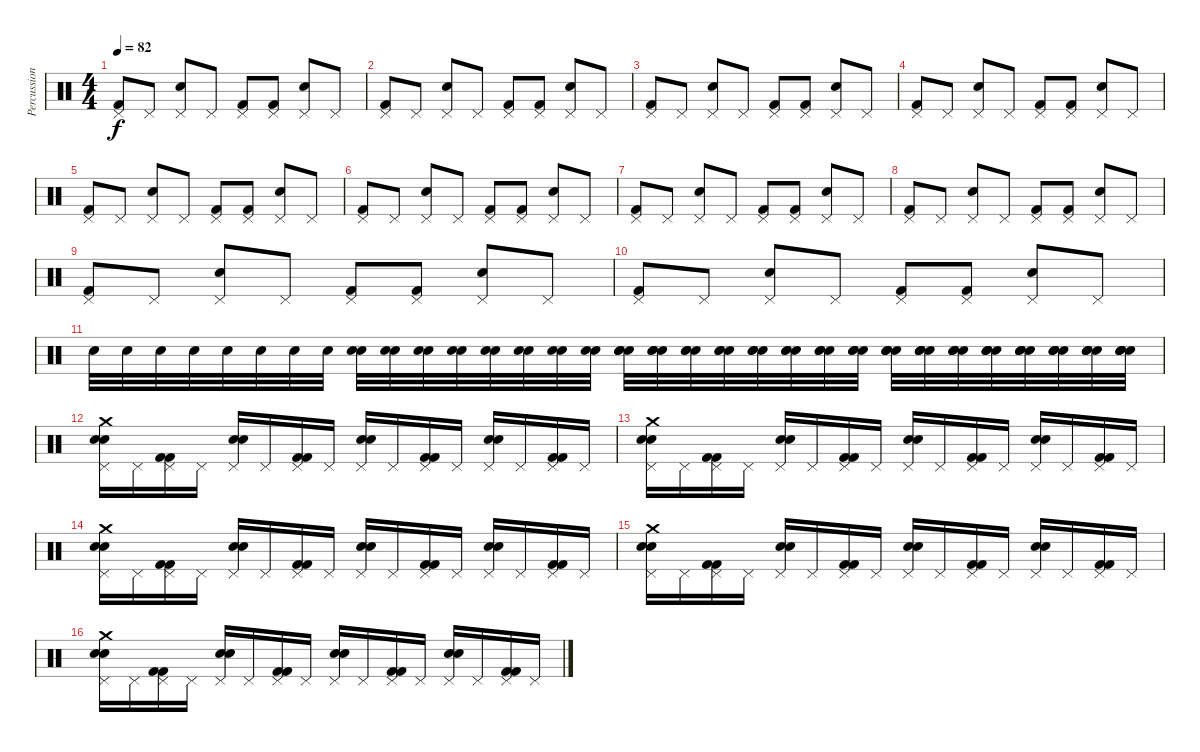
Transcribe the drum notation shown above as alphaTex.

\track ("Percussion" "Percussion") {instrument percussion}
\staff {score}
\articulation defaults
\ts (4 4)
\tempo 82
\clef neutral
\ks c
("Pedal Hi-Hat (hit)" "Kick (hit) 2").8{dy f} "Pedal Hi-Hat (hit)".8 ("Pedal Hi-Hat (hit)" "Electric Snare (hit)").8 "Pedal Hi-Hat (hit)".8 ("Pedal Hi-Hat (hit)" "Kick (hit) 2").8 ("Pedal Hi-Hat (hit)" "Kick (hit) 2").8 ("Pedal Hi-Hat (hit)" "Electric Snare (hit)").8 "Pedal Hi-Hat (hit)".8 |
("Pedal Hi-Hat (hit)" "Kick (hit) 2").8 "Pedal Hi-Hat (hit)".8 ("Pedal Hi-Hat (hit)" "Electric Snare (hit)").8 "Pedal Hi-Hat (hit)".8 ("Pedal Hi-Hat (hit)" "Kick (hit) 2").8 ("Pedal Hi-Hat (hit)" "Kick (hit) 2").8 ("Pedal Hi-Hat (hit)" "Electric Snare (hit)").8 "Pedal Hi-Hat (hit)".8 |
("Pedal Hi-Hat (hit)" "Kick (hit) 2").8 "Pedal Hi-Hat (hit)".8 ("Pedal Hi-Hat (hit)" "Electric Snare (hit)").8 "Pedal Hi-Hat (hit)".8 ("Pedal Hi-Hat (hit)" "Kick (hit) 2").8 ("Pedal Hi-Hat (hit)" "Kick (hit) 2").8 ("Pedal Hi-Hat (hit)" "Electric Snare (hit)").8 "Pedal Hi-Hat (hit)".8 |
("Pedal Hi-Hat (hit)" "Kick (hit) 2").8 "Pedal Hi-Hat (hit)".8 ("Pedal Hi-Hat (hit)" "Electric Snare (hit)").8 "Pedal Hi-Hat (hit)".8 ("Pedal Hi-Hat (hit)" "Kick (hit) 2").8 ("Pedal Hi-Hat (hit)" "Kick (hit) 2").8 ("Pedal Hi-Hat (hit)" "Electric Snare (hit)").8 "Pedal Hi-Hat (hit)".8 |
("Pedal Hi-Hat (hit)" "Kick (hit) 2").8 "Pedal Hi-Hat (hit)".8 ("Pedal Hi-Hat (hit)" "Electric Snare (hit)").8 "Pedal Hi-Hat (hit)".8 ("Pedal Hi-Hat (hit)" "Kick (hit) 2").8 ("Pedal Hi-Hat (hit)" "Kick (hit) 2").8 ("Pedal Hi-Hat (hit)" "Electric Snare (hit)").8 "Pedal Hi-Hat (hit)".8 |
("Pedal Hi-Hat (hit)" "Kick (hit) 2").8 "Pedal Hi-Hat (hit)".8 ("Pedal Hi-Hat (hit)" "Electric Snare (hit)").8 "Pedal Hi-Hat (hit)".8 ("Pedal Hi-Hat (hit)" "Kick (hit) 2").8 ("Pedal Hi-Hat (hit)" "Kick (hit) 2").8 ("Pedal Hi-Hat (hit)" "Electric Snare (hit)").8 "Pedal Hi-Hat (hit)".8 |
("Pedal Hi-Hat (hit)" "Kick (hit) 2").8 "Pedal Hi-Hat (hit)".8 ("Pedal Hi-Hat (hit)" "Electric Snare (hit)").8 "Pedal Hi-Hat (hit)".8 ("Pedal Hi-Hat (hit)" "Kick (hit) 2").8 ("Pedal Hi-Hat (hit)" "Kick (hit) 2").8 ("Pedal Hi-Hat (hit)" "Electric Snare (hit)").8 "Pedal Hi-Hat (hit)".8 |
("Pedal Hi-Hat (hit)" "Kick (hit) 2").8 "Pedal Hi-Hat (hit)".8 ("Pedal Hi-Hat (hit)" "Electric Snare (hit)").8 "Pedal Hi-Hat (hit)".8 ("Pedal Hi-Hat (hit)" "Kick (hit) 2").8 ("Pedal Hi-Hat (hit)" "Kick (hit) 2").8 ("Pedal Hi-Hat (hit)" "Electric Snare (hit)").8 "Pedal Hi-Hat (hit)".8 |
("Pedal Hi-Hat (hit)" "Kick (hit) 2").8 "Pedal Hi-Hat (hit)".8 ("Pedal Hi-Hat (hit)" "Electric Snare (hit)").8 "Pedal Hi-Hat (hit)".8 ("Pedal Hi-Hat (hit)" "Kick (hit) 2").8 ("Pedal Hi-Hat (hit)" "Kick (hit) 2").8 ("Pedal Hi-Hat (hit)" "Electric Snare (hit)").8 "Pedal Hi-Hat (hit)".8 |
("Pedal Hi-Hat (hit)" "Kick (hit) 2").8 "Pedal Hi-Hat (hit)".8 ("Pedal Hi-Hat (hit)" "Electric Snare (hit)").8 "Pedal Hi-Hat (hit)".8 ("Pedal Hi-Hat (hit)" "Kick (hit) 2").8 ("Pedal Hi-Hat (hit)" "Kick (hit) 2").8 ("Pedal Hi-Hat (hit)" "Electric Snare (hit)").8 "Pedal Hi-Hat (hit)".8 |
"Electric Snare (hit)".32 "Electric Snare (hit)".32 "Electric Snare (hit)".32 "Electric Snare (hit)".32 "Electric Snare (hit)".32 "Electric Snare (hit)".32 "Electric Snare (hit)".32 "Electric Snare (hit)".32 ("Electric Snare (hit)" "Electric Snare (hit)").32 ("Electric Snare (hit)" "Electric Snare (hit)").32 ("Electric Snare (hit)" "Electric Snare (hit)").32 ("Electric Snare (hit)" "Electric Snare (hit)").32 ("Electric Snare (hit)" "Electric Snare (hit)").32 ("Electric Snare (hit)" "Electric Snare (hit)").32 ("Electric Snare (hit)" "Electric Snare (hit)").32 ("Electric Snare (hit)" "Electric Snare (hit)").32 ("Electric Snare (hit)" "Electric Snare (hit)" "Electric Snare (hit)").32 ("Electric Snare (hit)" "Electric Snare (hit)" "Electric Snare (hit)").32 ("Electric Snare (hit)" "Electric Snare (hit)" "Electric Snare (hit)").32 ("Electric Snare (hit)" "Electric Snare (hit)" "Electric Snare (hit)").32 ("Electric Snare (hit)" "Electric Snare (hit)" "Electric Snare (hit)").32 ("Electric Snare (hit)" "Electric Snare (hit)" "Electric Snare (hit)").32 ("Electric Snare (hit)" "Electric Snare (hit)" "Electric Snare (hit)").32 ("Electric Snare (hit)" "Electric Snare (hit)" "Electric Snare (hit)").32 ("Electric Snare (hit)" "Electric Snare (hit)" "Electric Snare (hit)" "Electric Snare (hit)").32 ("Electric Snare (hit)" "Electric Snare (hit)" "Electric Snare (hit)" "Electric Snare (hit)").32 ("Electric Snare (hit)" "Electric Snare (hit)" "Electric Snare (hit)" "Electric Snare (hit)").32 ("Electric Snare (hit)" "Electric Snare (hit)" "Electric Snare (hit)" "Electric Snare (hit)").32 ("Electric Snare (hit)" "Electric Snare (hit)" "Electric Snare (hit)" "Electric Snare (hit)").32 ("Electric Snare (hit)" "Electric Snare (hit)" "Electric Snare (hit)" "Electric Snare (hit)").32 ("Electric Snare (hit)" "Electric Snare (hit)" "Electric Snare (hit)" "Electric Snare (hit)").32 ("Electric Snare (hit)" "Electric Snare (hit)" "Electric Snare (hit)" "Electric Snare (hit)").32 |
("Pedal Hi-Hat (hit)" "Electric Snare (hit)" "Crash medium (hit)" "Electric Snare (hit)").16 "Pedal Hi-Hat (hit)".16 ("Pedal Hi-Hat (hit)" "Kick (hit) 2" "Kick (hit) 2").16 "Pedal Hi-Hat (hit)".16 ("Pedal Hi-Hat (hit)" "Electric Snare (hit)" "Electric Snare (hit)").16 "Pedal Hi-Hat (hit)".16 ("Pedal Hi-Hat (hit)" "Kick (hit) 2" "Kick (hit) 2").16 "Pedal Hi-Hat (hit)".16 ("Pedal Hi-Hat (hit)" "Electric Snare (hit)" "Electric Snare (hit)").16 "Pedal Hi-Hat (hit)".16 ("Pedal Hi-Hat (hit)" "Kick (hit) 2" "Kick (hit) 2").16 "Pedal Hi-Hat (hit)".16 ("Pedal Hi-Hat (hit)" "Electric Snare (hit)" "Electric Snare (hit)").16 "Pedal Hi-Hat (hit)".16 ("Pedal Hi-Hat (hit)" "Kick (hit) 2" "Kick (hit) 2").16 "Pedal Hi-Hat (hit)".16 |
("Pedal Hi-Hat (hit)" "Electric Snare (hit)" "Crash medium (hit)" "Electric Snare (hit)").16 "Pedal Hi-Hat (hit)".16 ("Pedal Hi-Hat (hit)" "Kick (hit) 2" "Kick (hit) 2").16 "Pedal Hi-Hat (hit)".16 ("Pedal Hi-Hat (hit)" "Electric Snare (hit)" "Electric Snare (hit)").16 "Pedal Hi-Hat (hit)".16 ("Pedal Hi-Hat (hit)" "Kick (hit) 2" "Kick (hit) 2").16 "Pedal Hi-Hat (hit)".16 ("Pedal Hi-Hat (hit)" "Electric Snare (hit)" "Electric Snare (hit)").16 "Pedal Hi-Hat (hit)".16 ("Pedal Hi-Hat (hit)" "Kick (hit) 2" "Kick (hit) 2").16 "Pedal Hi-Hat (hit)".16 ("Pedal Hi-Hat (hit)" "Electric Snare (hit)" "Electric Snare (hit)").16 "Pedal Hi-Hat (hit)".16 ("Pedal Hi-Hat (hit)" "Kick (hit) 2" "Kick (hit) 2").16 "Pedal Hi-Hat (hit)".16 |
("Pedal Hi-Hat (hit)" "Electric Snare (hit)" "Crash medium (hit)" "Electric Snare (hit)").16 "Pedal Hi-Hat (hit)".16 ("Pedal Hi-Hat (hit)" "Kick (hit) 2" "Kick (hit) 2").16 "Pedal Hi-Hat (hit)".16 ("Pedal Hi-Hat (hit)" "Electric Snare (hit)" "Electric Snare (hit)").16 "Pedal Hi-Hat (hit)".16 ("Pedal Hi-Hat (hit)" "Kick (hit) 2" "Kick (hit) 2").16 "Pedal Hi-Hat (hit)".16 ("Pedal Hi-Hat (hit)" "Electric Snare (hit)" "Electric Snare (hit)").16 "Pedal Hi-Hat (hit)".16 ("Pedal Hi-Hat (hit)" "Kick (hit) 2" "Kick (hit) 2").16 "Pedal Hi-Hat (hit)".16 ("Pedal Hi-Hat (hit)" "Electric Snare (hit)" "Electric Snare (hit)").16 "Pedal Hi-Hat (hit)".16 ("Pedal Hi-Hat (hit)" "Kick (hit) 2" "Kick (hit) 2").16 "Pedal Hi-Hat (hit)".16 |
("Pedal Hi-Hat (hit)" "Electric Snare (hit)" "Crash medium (hit)" "Electric Snare (hit)").16 "Pedal Hi-Hat (hit)".16 ("Pedal Hi-Hat (hit)" "Kick (hit) 2" "Kick (hit) 2").16 "Pedal Hi-Hat (hit)".16 ("Pedal Hi-Hat (hit)" "Electric Snare (hit)" "Electric Snare (hit)").16 "Pedal Hi-Hat (hit)".16 ("Pedal Hi-Hat (hit)" "Kick (hit) 2" "Kick (hit) 2").16 "Pedal Hi-Hat (hit)".16 ("Pedal Hi-Hat (hit)" "Electric Snare (hit)" "Electric Snare (hit)").16 "Pedal Hi-Hat (hit)".16 ("Pedal Hi-Hat (hit)" "Kick (hit) 2" "Kick (hit) 2").16 "Pedal Hi-Hat (hit)".16 ("Pedal Hi-Hat (hit)" "Electric Snare (hit)" "Electric Snare (hit)").16 "Pedal Hi-Hat (hit)".16 ("Pedal Hi-Hat (hit)" "Kick (hit) 2" "Kick (hit) 2").16 "Pedal Hi-Hat (hit)".16 |
("Pedal Hi-Hat (hit)" "Electric Snare (hit)" "Crash medium (hit)" "Electric Snare (hit)").16 "Pedal Hi-Hat (hit)".16 ("Pedal Hi-Hat (hit)" "Kick (hit) 2" "Kick (hit) 2").16 "Pedal Hi-Hat (hit)".16 ("Pedal Hi-Hat (hit)" "Electric Snare (hit)" "Electric Snare (hit)").16 "Pedal Hi-Hat (hit)".16 ("Pedal Hi-Hat (hit)" "Kick (hit) 2" "Kick (hit) 2").16 "Pedal Hi-Hat (hit)".16 ("Pedal Hi-Hat (hit)" "Electric Snare (hit)" "Electric Snare (hit)").16 "Pedal Hi-Hat (hit)".16 ("Pedal Hi-Hat (hit)" "Kick (hit) 2" "Kick (hit) 2").16 "Pedal Hi-Hat (hit)".16 ("Pedal Hi-Hat (hit)" "Electric Snare (hit)" "Electric Snare (hit)").16 "Pedal Hi-Hat (hit)".16 ("Pedal Hi-Hat (hit)" "Kick (hit) 2" "Kick (hit) 2").16 "Pedal Hi-Hat (hit)".16
